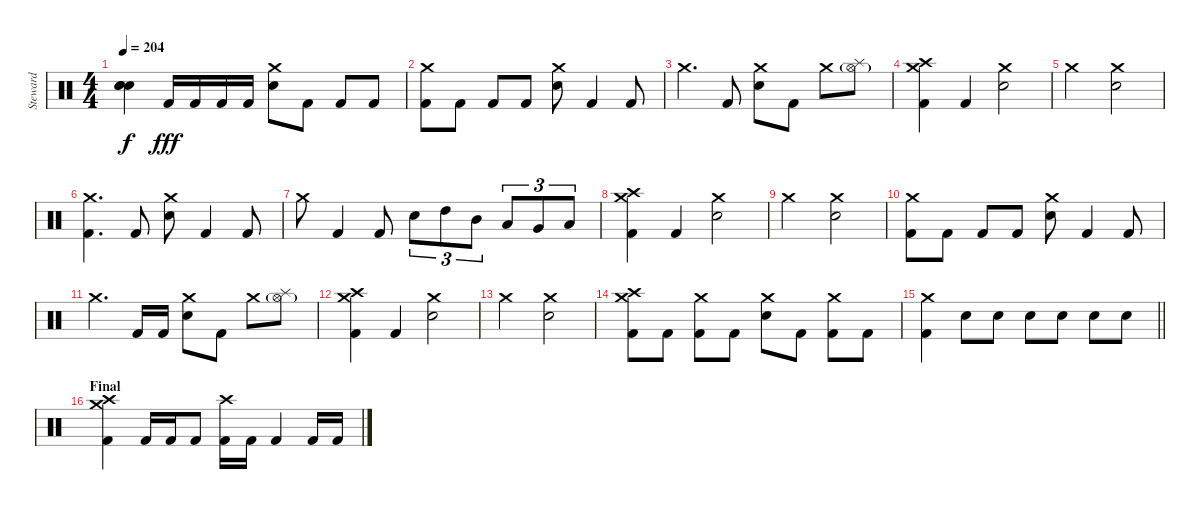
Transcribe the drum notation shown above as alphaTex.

\track ("Steward" "Steward") {instrument percussion}
\staff {score}
\articulation defaults
\ts (4 4)
\tempo 204
\clef neutral
\ks c
("Snare (hit)"{t} "Snare (hit)"{t} "Snare (hit)"{t}).4{dy f} "Kick (hit) 2".16{dy fff} "Kick (hit) 2".16 "Kick (hit) 2".16 "Kick (hit) 2".16 ("Crash medium (hit)" "Electric Snare (hit)").8 "Kick (hit) 2".8 "Kick (hit) 2".8 "Kick (hit) 2".8 |
("Crash medium (hit)" "Kick (hit) 2").8 "Kick (hit) 2".8 "Kick (hit) 2".8 "Kick (hit) 2".8 ("Crash medium (hit)" "Electric Snare (hit)").8 "Kick (hit) 2".4 "Kick (hit) 2".8 |
"Crash medium (hit)".4{d} "Kick (hit) 2".8 ("Crash medium (hit)" "Electric Snare (hit)").8 "Kick (hit) 2".8 "Crash medium (hit)".8 ("Splash (hit)" "Hi-Hat (open)"{g}).8 |
("Crash medium (hit)" "Crash high (hit)" "Kick (hit) 2").4 "Kick (hit) 2".4 ("Crash medium (hit)" "Electric Snare (hit)").2 |
"Crash medium (hit)".2 ("Crash medium (hit)" "Electric Snare (hit)").2 |
("Crash medium (hit)" "Kick (hit) 2").4{d} "Kick (hit) 2".8 ("Crash medium (hit)" "Electric Snare (hit)").8 "Kick (hit) 2".4 "Kick (hit) 2".8 |
"Crash medium (hit)".8 "Kick (hit) 2".4 "Kick (hit) 2".8 "Electric Snare (hit)".8{tu (3 2)} "High Tom (hit)".8{tu (3 2)} "Mid Tom (hit)".8{tu (3 2)} "Low Tom (hit)".8{tu (3 2)} "Very Low Tom (hit)".8{tu (3 2)} "Low Floor Tom (hit)".8{tu (3 2)} |
("Crash medium (hit)" "Crash high (hit)" "Kick (hit) 2").4 "Kick (hit) 2".4 ("Crash medium (hit)" "Electric Snare (hit)").2 |
"Crash medium (hit)".2 ("Crash medium (hit)" "Electric Snare (hit)").2 |
("Crash medium (hit)" "Kick (hit) 2").8 "Kick (hit) 2".8 "Kick (hit) 2".8 "Kick (hit) 2".8 ("Crash medium (hit)" "Electric Snare (hit)").8 "Kick (hit) 2".4 "Kick (hit) 2".8 |
"Crash medium (hit)".4{d} "Kick (hit) 2".16 "Kick (hit) 2".16 ("Crash medium (hit)" "Electric Snare (hit)").8 "Kick (hit) 2".8 "Crash medium (hit)".8 ("Splash (hit)" "Hi-Hat (open)"{g}).8 |
("Crash medium (hit)" "Crash high (hit)" "Kick (hit) 2").4 "Kick (hit) 2".4 ("Crash medium (hit)" "Electric Snare (hit)").2 |
"Crash medium (hit)".2 ("Crash medium (hit)" "Electric Snare (hit)").2 |
("Crash medium (hit)" "Crash high (hit)" "Kick (hit) 2").8 "Kick (hit) 2".8 ("Crash medium (hit)" "Kick (hit) 2").8 "Kick (hit) 2".8 ("Crash medium (hit)" "Electric Snare (hit)").8 "Kick (hit) 2".8 ("Crash medium (hit)" "Kick (hit) 2").8 "Kick (hit) 2".8 |
\barLineRight lightlight
("Crash medium (hit)" "Kick (hit) 2").4 "Electric Snare (hit)".8 "Electric Snare (hit)".8 "Electric Snare (hit)".8 "Electric Snare (hit)".8 "Electric Snare (hit)".8 "Electric Snare (hit)".8 |
\section ("" "Final")
("Crash medium (hit)" "Crash high (hit)" "Kick (hit) 2").4 "Kick (hit) 2".16 "Kick (hit) 2".16 "Kick (hit) 2".8 ("Crash high (hit)" "Kick (hit) 2").16 "Kick (hit) 2".16 "Kick (hit) 2".4 "Kick (hit) 2".16 "Kick (hit) 2".16
